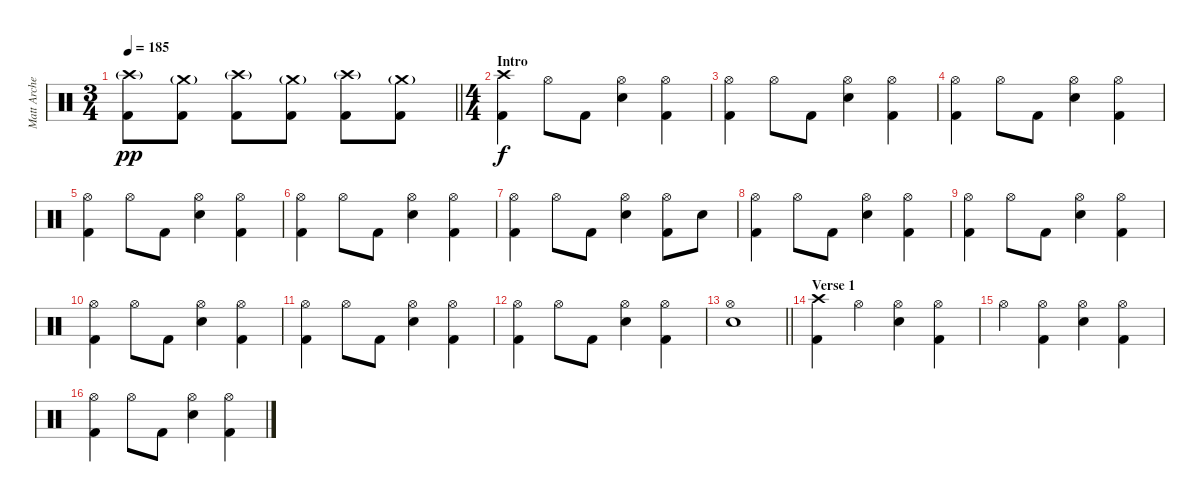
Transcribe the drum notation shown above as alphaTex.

\track ("Matt Archer" "Matt Arche") {instrument percussion}
\staff {score}
\articulation defaults
\ts (3 4)
\section ("" "")
\tempo 185
\clef neutral
\barLineRight lightlight
\ks c
("Crash high (hit)"{g} "Kick (hit) 2").8{dy pp} ("Crash medium (hit)"{g} "Kick (hit) 2").8 ("Crash high (hit)"{g} "Kick (hit) 2").8 ("Crash medium (hit)"{g} "Kick (hit) 2").8 ("Crash high (hit)"{g} "Kick (hit) 2").8 ("Crash medium (hit)"{g} "Kick (hit) 2").8 |
\ts (4 4)
\section ("" "Intro")
("Crash high (hit)" "Kick (hit) 2").4{dy f} "Hi-Hat (open)".8 "Kick (hit) 2".8 ("Hi-Hat (open)" "Snare (hit) 2").4 ("Hi-Hat (open)" "Kick (hit) 2").4 |
("Hi-Hat (open)" "Kick (hit) 2").4 "Hi-Hat (open)".8 "Kick (hit) 2".8 ("Hi-Hat (open)" "Snare (hit) 2").4 ("Hi-Hat (open)" "Kick (hit) 2").4 |
("Hi-Hat (open)" "Kick (hit) 2").4 "Hi-Hat (open)".8 "Kick (hit) 2".8 ("Hi-Hat (open)" "Snare (hit) 2").4 ("Hi-Hat (open)" "Kick (hit) 2").4 |
("Hi-Hat (open)" "Kick (hit) 2").4 "Hi-Hat (open)".8 "Kick (hit) 2".8 ("Hi-Hat (open)" "Snare (hit) 2").4 ("Hi-Hat (open)" "Kick (hit) 2").4 |
("Hi-Hat (open)" "Kick (hit) 2").4 "Hi-Hat (open)".8 "Kick (hit) 2".8 ("Hi-Hat (open)" "Snare (hit) 2").4 ("Hi-Hat (open)" "Kick (hit) 2").4 |
("Hi-Hat (open)" "Kick (hit) 2").4 "Hi-Hat (open)".8 "Kick (hit) 2".8 ("Hi-Hat (open)" "Snare (hit) 2").4 ("Hi-Hat (open)" "Kick (hit) 2").8 "Snare (hit) 2".8 |
("Hi-Hat (open)" "Kick (hit) 2").4 "Hi-Hat (open)".8 "Kick (hit) 2".8 ("Hi-Hat (open)" "Snare (hit) 2").4 ("Hi-Hat (open)" "Kick (hit) 2").4 |
("Hi-Hat (open)" "Kick (hit) 2").4 "Hi-Hat (open)".8 "Kick (hit) 2".8 ("Hi-Hat (open)" "Snare (hit) 2").4 ("Hi-Hat (open)" "Kick (hit) 2").4 |
("Hi-Hat (open)" "Kick (hit) 2").4 "Hi-Hat (open)".8 "Kick (hit) 2".8 ("Hi-Hat (open)" "Snare (hit) 2").4 ("Hi-Hat (open)" "Kick (hit) 2").4 |
("Hi-Hat (open)" "Kick (hit) 2").4 "Hi-Hat (open)".8 "Kick (hit) 2".8 ("Hi-Hat (open)" "Snare (hit) 2").4 ("Hi-Hat (open)" "Kick (hit) 2").4 |
("Hi-Hat (open)" "Kick (hit) 2").4 "Hi-Hat (open)".8 "Kick (hit) 2".8 ("Hi-Hat (open)" "Snare (hit) 2").4 ("Hi-Hat (open)" "Kick (hit) 2").4 |
\barLineRight lightlight
("Hi-Hat (open)" "Snare (hit) 2").1 |
\section ("" "Verse 1")
("Crash high (hit)" "Kick (hit) 2").4 "Hi-Hat (open)".4 ("Hi-Hat (open)" "Snare (hit) 2").4 ("Hi-Hat (open)" "Kick (hit) 2").4 |
"Hi-Hat (open)".4 ("Hi-Hat (open)" "Kick (hit) 2").4 ("Hi-Hat (open)" "Snare (hit) 2").4 ("Hi-Hat (open)" "Kick (hit) 2").4 |
("Hi-Hat (open)" "Kick (hit) 2").4 "Hi-Hat (open)".8 "Kick (hit) 2".8 ("Hi-Hat (open)" "Snare (hit) 2").4 ("Hi-Hat (open)" "Kick (hit) 2").4
